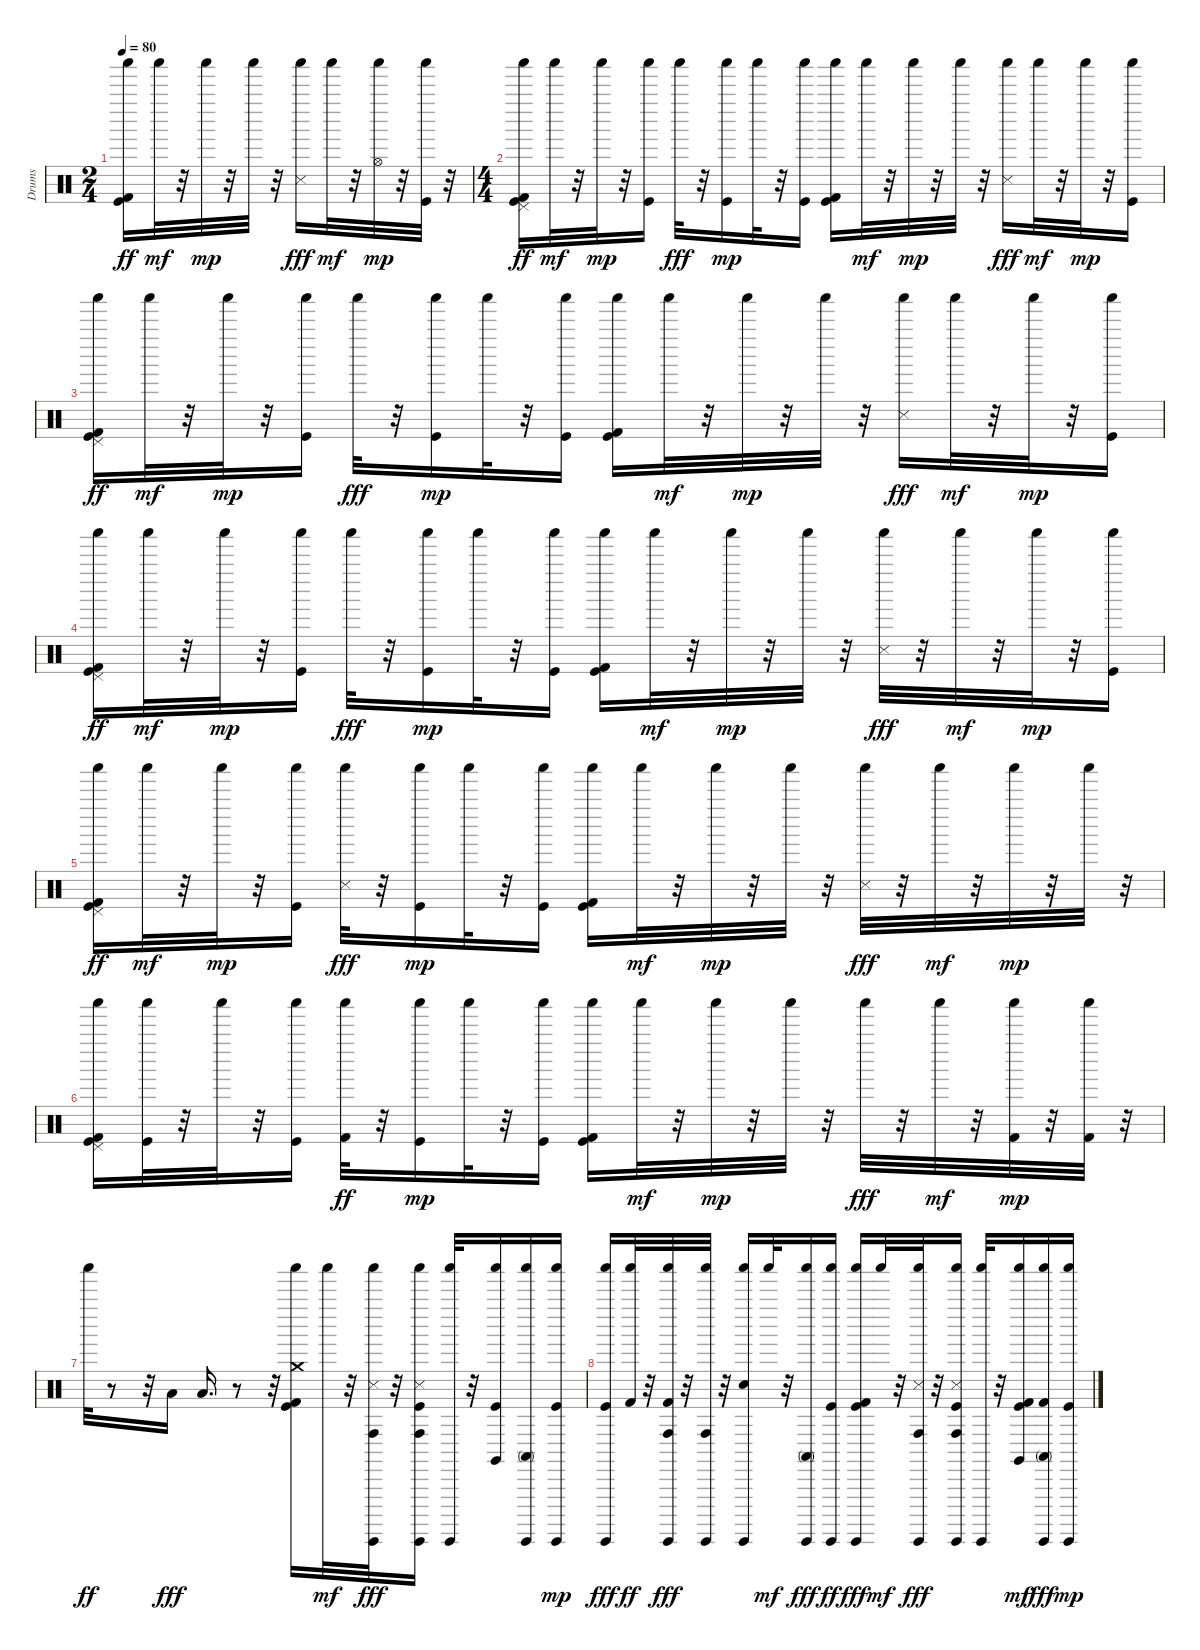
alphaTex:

\track ("Drums" "Drums") {instrument percussion}
\staff {score}
\articulation defaults
\ts (2 4)
\tempo 80
\clef neutral
\ks c
("Shaker (hit)" "Kick (hit)" "Kick (hit) 2").16{dy ff} "Shaker (hit)".32{dy mf} r.32 "Shaker (hit)".32{dy mp} r.32 "Shaker (hit)".32 r.32 ("Shaker (hit)" "Snare (side stick) 3").16{dy fff} "Shaker (hit)".32{dy mf} r.32 ("Hi-Hat (open)" "Shaker (hit)").32{dy mp} r.32 ("Shaker (hit)" "Kick (hit)").32 r.32 |
\ts (4 4)
("Shaker (hit)" "Kick (hit) 2" "Kick (hit)" "Pedal Hi-Hat (hit)").16{dy ff} "Shaker (hit)".32{dy mf} r.32 "Shaker (hit)".32{dy mp} r.32 ("Shaker (hit)" "Kick (hit)").16 "Shaker (hit)".32{dy fff} r.32 ("Shaker (hit)" "Kick (hit)").16{dy mp} "Shaker (hit)".32 r.32 ("Shaker (hit)" "Kick (hit)").16 ("Shaker (hit)" "Kick (hit) 2" "Kick (hit)").16 "Shaker (hit)".32{dy mf} r.32 "Shaker (hit)".32{dy mp} r.32 "Shaker (hit)".32 r.32 ("Shaker (hit)" "Snare (side stick) 3").16{dy fff} "Shaker (hit)".32{dy mf} r.32 "Shaker (hit)".32{dy mp} r.32 ("Shaker (hit)" "Kick (hit)").16 |
("Shaker (hit)" "Kick (hit) 2" "Kick (hit)" "Pedal Hi-Hat (hit)").16{dy ff} "Shaker (hit)".32{dy mf} r.32 "Shaker (hit)".32{dy mp} r.32 ("Shaker (hit)" "Kick (hit)").16 "Shaker (hit)".32{dy fff} r.32 ("Shaker (hit)" "Kick (hit)").16{dy mp} "Shaker (hit)".32 r.32 ("Shaker (hit)" "Kick (hit)").16 ("Shaker (hit)" "Kick (hit) 2" "Kick (hit)").16 "Shaker (hit)".32{dy mf} r.32 "Shaker (hit)".32{dy mp} r.32 "Shaker (hit)".32 r.32 ("Shaker (hit)" "Snare (side stick) 3").16{dy fff} "Shaker (hit)".32{dy mf} r.32 "Shaker (hit)".32{dy mp} r.32 ("Shaker (hit)" "Kick (hit)").16 |
("Shaker (hit)" "Kick (hit) 2" "Kick (hit)" "Pedal Hi-Hat (hit)").16{dy ff} "Shaker (hit)".32{dy mf} r.32 "Shaker (hit)".32{dy mp} r.32 ("Shaker (hit)" "Kick (hit)").16 "Shaker (hit)".32{dy fff} r.32 ("Shaker (hit)" "Kick (hit)").16{dy mp} "Shaker (hit)".32 r.32 ("Shaker (hit)" "Kick (hit)").16 ("Shaker (hit)" "Kick (hit) 2" "Kick (hit)").16 "Shaker (hit)".32{dy mf} r.32 "Shaker (hit)".32{dy mp} r.32 "Shaker (hit)".32 r.32 ("Shaker (hit)" "Snare (side stick) 3").32{dy fff} r.32 "Shaker (hit)".32{dy mf} r.32 "Shaker (hit)".32{dy mp} r.32 ("Shaker (hit)" "Kick (hit)").16 |
("Shaker (hit)" "Kick (hit) 2" "Kick (hit)" "Pedal Hi-Hat (hit)").16{dy ff} "Shaker (hit)".32{dy mf} r.32 "Shaker (hit)".32{dy mp} r.32 ("Shaker (hit)" "Kick (hit)").16 ("Shaker (hit)" "Snare (side stick) 3").32{dy fff} r.32 ("Shaker (hit)" "Kick (hit)").16{dy mp} "Shaker (hit)".32 r.32 ("Shaker (hit)" "Kick (hit)").16 ("Shaker (hit)" "Kick (hit) 2" "Kick (hit)").16 "Shaker (hit)".32{dy mf} r.32 "Shaker (hit)".32{dy mp} r.32 "Shaker (hit)".32 r.32 ("Shaker (hit)" "Snare (side stick) 3").32{dy fff} r.32 "Shaker (hit)".32{dy mf} r.32 "Shaker (hit)".32{dy mp} r.32 "Shaker (hit)".32 r.32 |
("Shaker (hit)" "Kick (hit) 2" "Pedal Hi-Hat (hit)" "Kick (hit)").16 ("Shaker (hit)" "Kick (hit)").32 r.32 "Shaker (hit)".32 r.32 ("Shaker (hit)" "Kick (hit)").16 ("Shaker (hit)" "Kick (hit) 2").32{dy ff} r.32 ("Shaker (hit)" "Kick (hit)").16{dy mp} "Shaker (hit)".32 r.32 ("Shaker (hit)" "Kick (hit)").16 ("Shaker (hit)" "Kick (hit) 2" "Kick (hit)").16 "Shaker (hit)".32{dy mf} r.32 "Shaker (hit)".32{dy mp} r.32 "Shaker (hit)".32 r.32 "Shaker (hit)".32{dy fff} r.32 "Shaker (hit)".32{dy mf} r.32 ("Kick (hit) 2" "Shaker (hit)").32{dy mp} r.32 ("Kick (hit) 2" "Shaker (hit)").32 r.32 |
"Shaker (hit)".32{dy ff} r.8 r.32 "Low Tom (hit)".16{dy fff} "Low Floor Tom (hit)".16{d} r.8 r.32 ("Shaker (hit)" "Kick (hit)" "Kick (hit) 2" "Crash medium (hit)").16 "Shaker (hit)".32{dy mf} r.32 ("Shaker (hit)" "Guiro (hit)" "Snare (side stick) 3" "Conga high (hit)").32{dy fff} r.32 ("Shaker (hit)" "Kick (hit)" "Guiro (hit)" "Snare (side stick) 3" "Conga high (hit)").16 ("Shaker (hit)" "Guiro (hit)").32 r.32 ("Shaker (hit)" "Kick (hit)" "Claves (hit)").16 ("Shaker (hit)" "Guiro (hit)" "Conga high (mute)").16 ("Shaker (hit)" "Kick (hit)" "Guiro (hit)").16{dy mp} |
("Shaker (hit)" "Kick (hit)" "Guiro (hit)").16{dy fff} ("Shaker (hit)" "Kick (hit) 2").32{dy ff} r.32 ("Shaker (hit)" "Kick (hit) 2" "Guiro (hit)" "Conga high (hit)").32{dy fff} r.32 ("Shaker (hit)" "Guiro (hit)" "Conga high (hit)").32 r.32 ("Shaker (hit)" "Guiro (hit)" "Electric Snare (hit)").16 "Shaker (hit)".32{dy mf} r.32 ("Shaker (hit)" "Guiro (hit)" "Conga high (mute)").16{dy fff} ("Shaker (hit)" "Kick (hit)" "Guiro (hit)").16{dy ff} ("Kick (hit)" "Guiro (hit)" "Kick (hit) 2" "Shaker (hit)").16{dy fff} "Shaker (hit)".32{dy mf} r.32 ("Guiro (hit)" "Shaker (hit)" "Snare (side stick) 3" "Conga high (hit)").32{dy fff} r.32 ("Kick (hit)" "Guiro (hit)" "Shaker (hit)" "Snare (side stick) 3" "Conga high (hit)").16 ("Guiro (hit)" "Shaker (hit)").32 r.32 ("Kick (hit)" "Kick (hit) 2" "Claves (hit)" "Shaker (hit)").16{dy mf} ("Guiro (hit)" "Kick (hit) 2" "Shaker (hit)" "Conga high (mute)").16{dy fff} ("Kick (hit)" "Guiro (hit)" "Shaker (hit)").16{dy mp}
